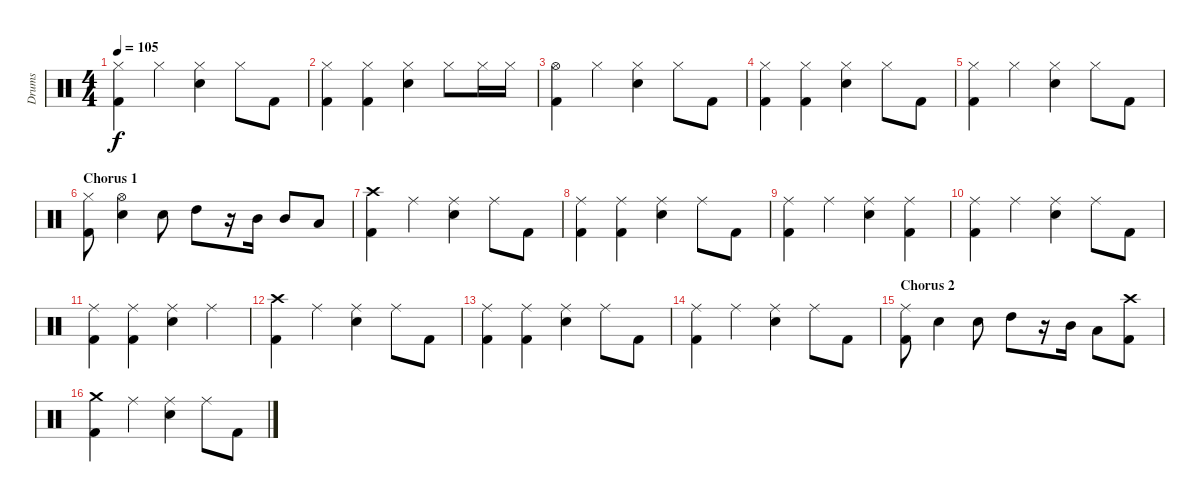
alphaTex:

\track ("Drums" "Drums") {instrument percussion}
\staff {score}
\articulation defaults
\ts (4 4)
\tempo 105
\clef neutral
\ks c
("Hi-Hat (closed)" "Kick (hit) 2").4{dy f} "Hi-Hat (closed)".4 ("Hi-Hat (closed)" "Snare (hit) 2").4 "Hi-Hat (closed)".8 "Kick (hit) 2".8 |
("Hi-Hat (closed)" "Kick (hit) 2").4 ("Hi-Hat (closed)" "Kick (hit) 2").4 ("Hi-Hat (closed)" "Snare (hit) 2").4 "Hi-Hat (closed)".8 "Hi-Hat (closed)".16 "Hi-Hat (closed)".16 |
("Hi-Hat (open)" "Kick (hit) 2").4 "Hi-Hat (closed)".4 ("Hi-Hat (closed)" "Snare (hit) 2").4 "Hi-Hat (closed)".8 "Kick (hit) 2".8 |
("Hi-Hat (closed)" "Kick (hit) 2").4 ("Hi-Hat (closed)" "Kick (hit) 2").4 ("Hi-Hat (closed)" "Snare (hit) 2").4 "Hi-Hat (closed)".8 "Kick (hit) 2".8 |
("Hi-Hat (closed)" "Kick (hit) 2").4 "Hi-Hat (closed)".4 ("Hi-Hat (closed)" "Snare (hit) 2").4 "Hi-Hat (closed)".8 "Kick (hit) 2".8 |
\section ("" "Chorus 1")
("Hi-Hat (closed)" "Kick (hit) 2").8 ("Hi-Hat (open)" "Snare (hit) 2").4 "Snare (hit) 2".8 "High Tom (hit)".8 r.16 "Mid Tom (hit)".16 "Mid Tom (hit)".8 "Low Tom (hit)".8 |
("Crash high (hit)" "Kick (hit) 2").4 "Ride (middle)".4 ("Ride (middle)" "Snare (hit) 2").4 "Ride (middle)".8 "Kick (hit) 2".8 |
("Ride (middle)" "Kick (hit) 2").4 ("Ride (middle)" "Kick (hit) 2").4 ("Ride (middle)" "Snare (hit) 2").4 "Ride (middle)".8 "Kick (hit) 2".8 |
("Ride (middle)" "Kick (hit) 2").4 "Ride (middle)".4 ("Ride (middle)" "Snare (hit) 2").4 ("Ride (middle)" "Kick (hit) 2").4 |
("Ride (middle)" "Kick (hit) 2").4 "Ride (middle)".4 ("Ride (middle)" "Snare (hit) 2").4 "Ride (middle)".8 "Kick (hit) 2".8 |
("Ride (middle)" "Kick (hit) 2").4 ("Ride (middle)" "Kick (hit) 2").4 ("Ride (middle)" "Snare (hit) 2").4 "Ride (middle)".4 |
("Crash high (hit)" "Kick (hit) 2").4 "Ride (middle)".4 ("Ride (middle)" "Snare (hit) 2").4 "Ride (middle)".8 "Kick (hit) 2".8 |
("Ride (middle)" "Kick (hit) 2").4 ("Ride (middle)" "Kick (hit) 2").4 ("Ride (middle)" "Snare (hit) 2").4 "Ride (middle)".8 "Kick (hit) 2".8 |
("Ride (middle)" "Kick (hit) 2").4 "Ride (middle)".4 ("Ride (middle)" "Snare (hit) 2").4 "Ride (middle)".8 "Kick (hit) 2".8 |
\section ("" "Chorus 2")
("Ride (middle)" "Kick (hit) 2").8 "Snare (hit) 2".4 "Snare (hit) 2".8 "High Tom (hit)".8 r.16 "Mid Tom (hit)".16 "Low Tom (hit)".8 ("Crash high (hit)" "Kick (hit) 2").8 |
("Crash medium (hit)" "Kick (hit) 2").4 "Ride (middle)".4 ("Ride (middle)" "Snare (hit) 2").4 "Ride (middle)".8 "Kick (hit) 2".8
